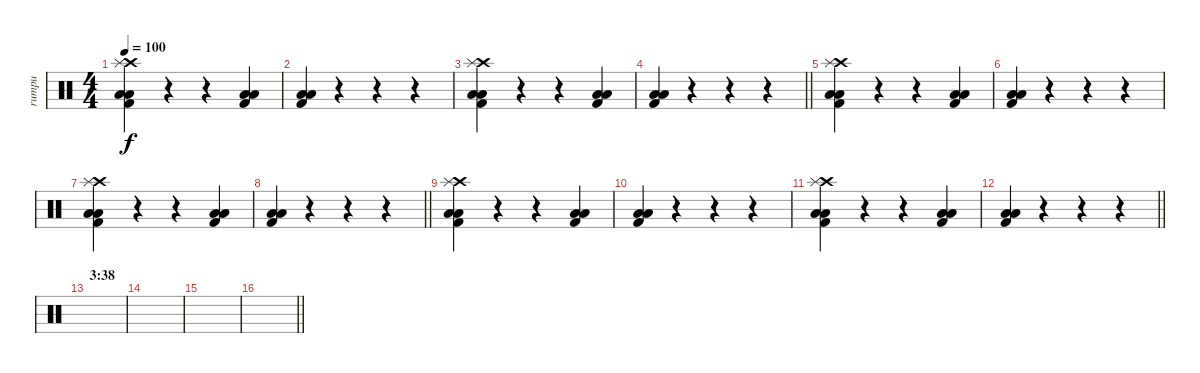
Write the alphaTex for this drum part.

\track ("rumpu" "rumpu") {instrument percussion}
\staff {score}
\articulation defaults
\ts (4 4)
\tempo 100
\clef neutral
\ks c
("Kick (hit) 2" "Low Tom (hit)" "Low Floor Tom (hit)" "Crash high (hit)" "Splash (hit)").4{dy f} r.4 r.4 ("Kick (hit) 2" "Low Tom (hit)" "Low Floor Tom (hit)").4 |
("Kick (hit) 2" "Low Tom (hit)" "Low Floor Tom (hit)").4 r.4 r.4 r.4 |
("Kick (hit) 2" "Low Tom (hit)" "Low Floor Tom (hit)" "Crash high (hit)" "Splash (hit)").4 r.4 r.4 ("Kick (hit) 2" "Low Tom (hit)" "Low Floor Tom (hit)").4 |
\barLineRight lightlight
("Kick (hit) 2" "Low Tom (hit)" "Low Floor Tom (hit)").4 r.4 r.4 r.4 |
("Kick (hit) 2" "Low Tom (hit)" "Low Floor Tom (hit)" "Crash high (hit)" "Splash (hit)").4 r.4 r.4 ("Kick (hit) 2" "Low Tom (hit)" "Low Floor Tom (hit)").4 |
("Kick (hit) 2" "Low Tom (hit)" "Low Floor Tom (hit)").4 r.4 r.4 r.4 |
("Kick (hit) 2" "Low Tom (hit)" "Low Floor Tom (hit)" "Crash high (hit)" "Splash (hit)").4 r.4 r.4 ("Kick (hit) 2" "Low Tom (hit)" "Low Floor Tom (hit)").4 |
\barLineRight lightlight
("Kick (hit) 2" "Low Tom (hit)" "Low Floor Tom (hit)").4 r.4 r.4 r.4 |
("Kick (hit) 2" "Low Tom (hit)" "Low Floor Tom (hit)" "Crash high (hit)" "Splash (hit)").4 r.4 r.4 ("Kick (hit) 2" "Low Tom (hit)" "Low Floor Tom (hit)").4 |
("Kick (hit) 2" "Low Tom (hit)" "Low Floor Tom (hit)").4 r.4 r.4 r.4 |
("Kick (hit) 2" "Low Tom (hit)" "Low Floor Tom (hit)" "Crash high (hit)" "Splash (hit)").4 r.4 r.4 ("Kick (hit) 2" "Low Tom (hit)" "Low Floor Tom (hit)").4 |
\barLineRight lightlight
("Kick (hit) 2" "Low Tom (hit)" "Low Floor Tom (hit)").4 r.4 r.4 r.4 |
\section ("" "3:38")
|
|
|
\barLineRight lightlight
